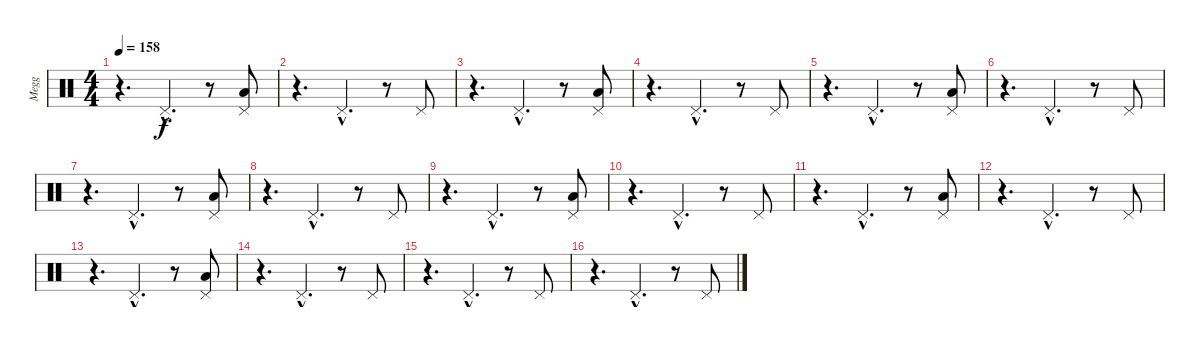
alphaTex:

\track ("Megg" "Megg") {instrument percussion}
\staff {score}
\articulation defaults
\ts (4 4)
\tempo 158
\clef neutral
\ks c
r.4{d dy f} "Pedal Hi-Hat (hit)"{hac}.4{d} r.8 ("Pedal Hi-Hat (hit)" "Low Tom (hit)").8 |
r.4{d} "Pedal Hi-Hat (hit)"{hac}.4{d} r.8 "Pedal Hi-Hat (hit)".8 |
r.4{d} "Pedal Hi-Hat (hit)"{hac}.4{d} r.8 ("Pedal Hi-Hat (hit)" "Low Tom (hit)").8 |
r.4{d} "Pedal Hi-Hat (hit)"{hac}.4{d} r.8 "Pedal Hi-Hat (hit)".8 |
r.4{d} "Pedal Hi-Hat (hit)"{hac}.4{d} r.8 ("Pedal Hi-Hat (hit)" "Low Tom (hit)").8 |
r.4{d} "Pedal Hi-Hat (hit)"{hac}.4{d} r.8 "Pedal Hi-Hat (hit)".8 |
r.4{d} "Pedal Hi-Hat (hit)"{hac}.4{d} r.8 ("Pedal Hi-Hat (hit)" "Low Tom (hit)").8 |
r.4{d} "Pedal Hi-Hat (hit)"{hac}.4{d} r.8 "Pedal Hi-Hat (hit)".8 |
r.4{d} "Pedal Hi-Hat (hit)"{hac}.4{d} r.8 ("Pedal Hi-Hat (hit)" "Low Tom (hit)").8 |
r.4{d} "Pedal Hi-Hat (hit)"{hac}.4{d} r.8 "Pedal Hi-Hat (hit)".8 |
r.4{d} "Pedal Hi-Hat (hit)"{hac}.4{d} r.8 ("Pedal Hi-Hat (hit)" "Low Tom (hit)").8 |
r.4{d} "Pedal Hi-Hat (hit)"{hac}.4{d} r.8 "Pedal Hi-Hat (hit)".8 |
r.4{d} "Pedal Hi-Hat (hit)"{hac}.4{d} r.8 ("Pedal Hi-Hat (hit)" "Low Tom (hit)").8 |
r.4{d} "Pedal Hi-Hat (hit)"{hac}.4{d} r.8 "Pedal Hi-Hat (hit)".8 |
r.4{d} "Pedal Hi-Hat (hit)"{hac}.4{d} r.8 "Pedal Hi-Hat (hit)".8 |
r.4{d} "Pedal Hi-Hat (hit)"{hac}.4{d} r.8 "Pedal Hi-Hat (hit)".8
